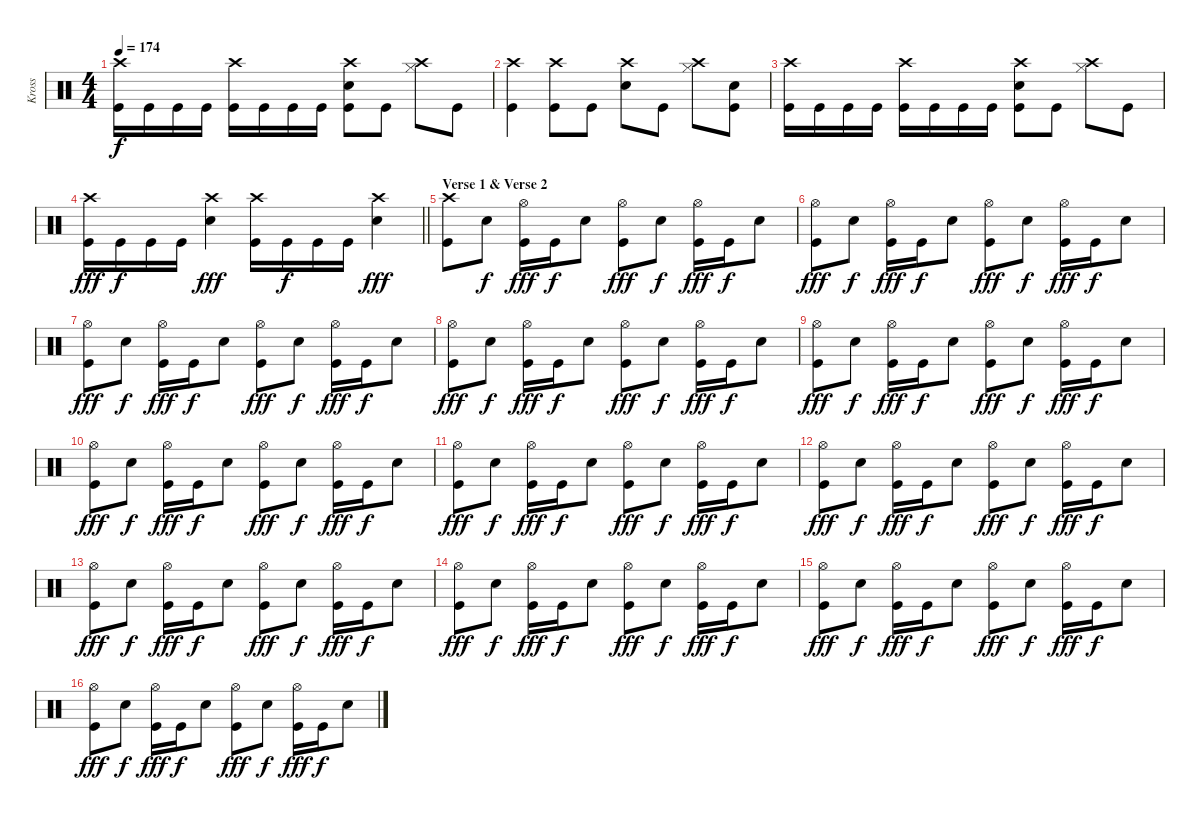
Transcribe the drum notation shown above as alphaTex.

\track ("Kross" "Kross") {instrument percussion}
\staff {score}
\articulation defaults
\ts (4 4)
\tempo 174
\clef neutral
\ks c
("Crash high (hit)" "Kick (hit)").16{dy f} "Kick (hit)".16 "Kick (hit)".16 "Kick (hit)".16 ("Crash high (hit)" "Kick (hit)").16 "Kick (hit)".16 "Kick (hit)".16 "Kick (hit)".16 ("Crash high (hit)" "Snare (hit) 2" "Kick (hit)").8 "Kick (hit)".8 ("Crash high (hit)" "Hi-Hat (closed)").8 "Kick (hit)".8 |
("Crash high (hit)" "Kick (hit)").4 ("Crash high (hit)" "Kick (hit)").8 "Kick (hit)".8 ("Crash high (hit)" "Snare (hit) 2").8 "Kick (hit)".8 ("Crash high (hit)" "Hi-Hat (closed)").8 ("Snare (hit) 2" "Kick (hit)").8 |
("Crash high (hit)" "Kick (hit)").16 "Kick (hit)".16 "Kick (hit)".16 "Kick (hit)".16 ("Crash high (hit)" "Kick (hit)").16 "Kick (hit)".16 "Kick (hit)".16 "Kick (hit)".16 ("Crash high (hit)" "Snare (hit) 2" "Kick (hit)").8 "Kick (hit)".8 ("Crash high (hit)" "Hi-Hat (closed)").8 "Kick (hit)".8 |
\barLineRight lightlight
("Crash high (hit)" "Kick (hit)").16{dy fff} "Kick (hit)".16{dy f} "Kick (hit)".16 "Kick (hit)".16 ("Crash high (hit)" "Snare (hit) 2").4{dy fff} ("Crash high (hit)" "Kick (hit)").16 "Kick (hit)".16{dy f} "Kick (hit)".16 "Kick (hit)".16 ("Crash high (hit)" "Snare (hit) 2").4{dy fff} |
\section ("" "Verse 1 & Verse 2")
("Crash high (hit)" "Kick (hit)").8 "Snare (hit) 2".8{dy f} ("Hi-Hat (open)" "Kick (hit)").16{dy fff} "Kick (hit)".16{dy f} "Snare (hit) 2".8 ("Hi-Hat (open)" "Kick (hit)").8{dy fff} "Snare (hit) 2".8{dy f} ("Hi-Hat (open)" "Kick (hit)").16{dy fff} "Kick (hit)".16{dy f} "Snare (hit) 2".8 |
("Hi-Hat (open)" "Kick (hit)").8{dy fff} "Snare (hit) 2".8{dy f} ("Hi-Hat (open)" "Kick (hit)").16{dy fff} "Kick (hit)".16{dy f} "Snare (hit) 2".8 ("Hi-Hat (open)" "Kick (hit)").8{dy fff} "Snare (hit) 2".8{dy f} ("Hi-Hat (open)" "Kick (hit)").16{dy fff} "Kick (hit)".16{dy f} "Snare (hit) 2".8 |
("Hi-Hat (open)" "Kick (hit)").8{dy fff} "Snare (hit) 2".8{dy f} ("Hi-Hat (open)" "Kick (hit)").16{dy fff} "Kick (hit)".16{dy f} "Snare (hit) 2".8 ("Hi-Hat (open)" "Kick (hit)").8{dy fff} "Snare (hit) 2".8{dy f} ("Hi-Hat (open)" "Kick (hit)").16{dy fff} "Kick (hit)".16{dy f} "Snare (hit) 2".8 |
("Hi-Hat (open)" "Kick (hit)").8{dy fff} "Snare (hit) 2".8{dy f} ("Hi-Hat (open)" "Kick (hit)").16{dy fff} "Kick (hit)".16{dy f} "Snare (hit) 2".8 ("Hi-Hat (open)" "Kick (hit)").8{dy fff} "Snare (hit) 2".8{dy f} ("Hi-Hat (open)" "Kick (hit)").16{dy fff} "Kick (hit)".16{dy f} "Snare (hit) 2".8 |
("Hi-Hat (open)" "Kick (hit)").8{dy fff} "Snare (hit) 2".8{dy f} ("Hi-Hat (open)" "Kick (hit)").16{dy fff} "Kick (hit)".16{dy f} "Snare (hit) 2".8 ("Hi-Hat (open)" "Kick (hit)").8{dy fff} "Snare (hit) 2".8{dy f} ("Hi-Hat (open)" "Kick (hit)").16{dy fff} "Kick (hit)".16{dy f} "Snare (hit) 2".8 |
("Hi-Hat (open)" "Kick (hit)").8{dy fff} "Snare (hit) 2".8{dy f} ("Hi-Hat (open)" "Kick (hit)").16{dy fff} "Kick (hit)".16{dy f} "Snare (hit) 2".8 ("Hi-Hat (open)" "Kick (hit)").8{dy fff} "Snare (hit) 2".8{dy f} ("Hi-Hat (open)" "Kick (hit)").16{dy fff} "Kick (hit)".16{dy f} "Snare (hit) 2".8 |
("Hi-Hat (open)" "Kick (hit)").8{dy fff} "Snare (hit) 2".8{dy f} ("Hi-Hat (open)" "Kick (hit)").16{dy fff} "Kick (hit)".16{dy f} "Snare (hit) 2".8 ("Hi-Hat (open)" "Kick (hit)").8{dy fff} "Snare (hit) 2".8{dy f} ("Hi-Hat (open)" "Kick (hit)").16{dy fff} "Kick (hit)".16{dy f} "Snare (hit) 2".8 |
("Hi-Hat (open)" "Kick (hit)").8{dy fff} "Snare (hit) 2".8{dy f} ("Hi-Hat (open)" "Kick (hit)").16{dy fff} "Kick (hit)".16{dy f} "Snare (hit) 2".8 ("Hi-Hat (open)" "Kick (hit)").8{dy fff} "Snare (hit) 2".8{dy f} ("Hi-Hat (open)" "Kick (hit)").16{dy fff} "Kick (hit)".16{dy f} "Snare (hit) 2".8 |
("Hi-Hat (open)" "Kick (hit)").8{dy fff} "Snare (hit) 2".8{dy f} ("Hi-Hat (open)" "Kick (hit)").16{dy fff} "Kick (hit)".16{dy f} "Snare (hit) 2".8 ("Hi-Hat (open)" "Kick (hit)").8{dy fff} "Snare (hit) 2".8{dy f} ("Hi-Hat (open)" "Kick (hit)").16{dy fff} "Kick (hit)".16{dy f} "Snare (hit) 2".8 |
("Hi-Hat (open)" "Kick (hit)").8{dy fff} "Snare (hit) 2".8{dy f} ("Hi-Hat (open)" "Kick (hit)").16{dy fff} "Kick (hit)".16{dy f} "Snare (hit) 2".8 ("Hi-Hat (open)" "Kick (hit)").8{dy fff} "Snare (hit) 2".8{dy f} ("Hi-Hat (open)" "Kick (hit)").16{dy fff} "Kick (hit)".16{dy f} "Snare (hit) 2".8 |
("Hi-Hat (open)" "Kick (hit)").8{dy fff} "Snare (hit) 2".8{dy f} ("Hi-Hat (open)" "Kick (hit)").16{dy fff} "Kick (hit)".16{dy f} "Snare (hit) 2".8 ("Hi-Hat (open)" "Kick (hit)").8{dy fff} "Snare (hit) 2".8{dy f} ("Hi-Hat (open)" "Kick (hit)").16{dy fff} "Kick (hit)".16{dy f} "Snare (hit) 2".8 |
("Hi-Hat (open)" "Kick (hit)").8{dy fff} "Snare (hit) 2".8{dy f} ("Hi-Hat (open)" "Kick (hit)").16{dy fff} "Kick (hit)".16{dy f} "Snare (hit) 2".8 ("Hi-Hat (open)" "Kick (hit)").8{dy fff} "Snare (hit) 2".8{dy f} ("Hi-Hat (open)" "Kick (hit)").16{dy fff} "Kick (hit)".16{dy f} "Snare (hit) 2".8
